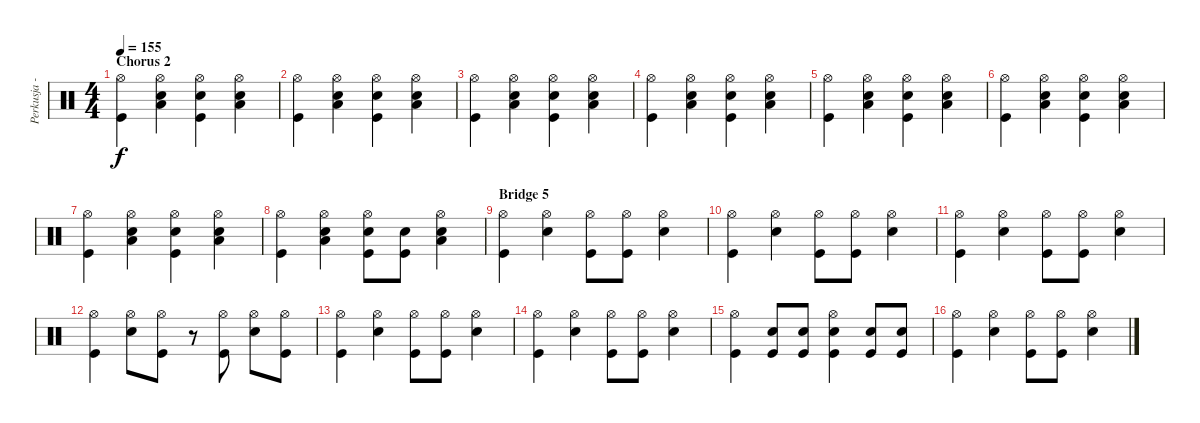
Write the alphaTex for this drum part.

\track ("Perkusja - Mielony" "Perkusja -") {instrument percussion}
\staff {score}
\articulation defaults
\ts (4 4)
\section ("" "Chorus 2")
\tempo 155
\clef neutral
\ks c
("Hi-Hat (open)" "Kick (hit)").4{dy f} ("Snare (hit) 2" "Hi-Hat (open)" "Low Tom (hit)").4 ("Snare (hit) 2" "Hi-Hat (open)" "Kick (hit)").4 ("Snare (hit) 2" "Hi-Hat (open)" "Low Tom (hit)").4 |
("Hi-Hat (open)" "Kick (hit)").4 ("Snare (hit) 2" "Hi-Hat (open)" "Low Tom (hit)").4 ("Snare (hit) 2" "Hi-Hat (open)" "Kick (hit)").4 ("Snare (hit) 2" "Hi-Hat (open)" "Low Tom (hit)").4 |
("Hi-Hat (open)" "Kick (hit)").4 ("Snare (hit) 2" "Hi-Hat (open)" "Low Tom (hit)").4 ("Snare (hit) 2" "Hi-Hat (open)" "Kick (hit)").4 ("Snare (hit) 2" "Hi-Hat (open)" "Low Tom (hit)").4 |
("Hi-Hat (open)" "Kick (hit)").4 ("Snare (hit) 2" "Hi-Hat (open)" "Low Tom (hit)").4 ("Snare (hit) 2" "Hi-Hat (open)" "Kick (hit)").4 ("Snare (hit) 2" "Hi-Hat (open)" "Low Tom (hit)").4 |
("Hi-Hat (open)" "Kick (hit)").4 ("Snare (hit) 2" "Hi-Hat (open)" "Low Tom (hit)").4 ("Snare (hit) 2" "Hi-Hat (open)" "Kick (hit)").4 ("Snare (hit) 2" "Hi-Hat (open)" "Low Tom (hit)").4 |
("Hi-Hat (open)" "Kick (hit)").4 ("Snare (hit) 2" "Hi-Hat (open)" "Low Tom (hit)").4 ("Snare (hit) 2" "Hi-Hat (open)" "Kick (hit)").4 ("Snare (hit) 2" "Hi-Hat (open)" "Low Tom (hit)").4 |
("Hi-Hat (open)" "Kick (hit)").4 ("Snare (hit) 2" "Hi-Hat (open)" "Low Tom (hit)").4 ("Snare (hit) 2" "Hi-Hat (open)" "Kick (hit)").4 ("Snare (hit) 2" "Hi-Hat (open)" "Low Tom (hit)").4 |
("Hi-Hat (open)" "Kick (hit)").4 ("Snare (hit) 2" "Hi-Hat (open)" "Low Tom (hit)").4 ("Snare (hit) 2" "Hi-Hat (open)" "Kick (hit)").8 ("Snare (hit) 2" "Kick (hit)").8 ("Snare (hit) 2" "Hi-Hat (open)" "Low Tom (hit)").4 |
\section ("" "Bridge 5")
("Hi-Hat (open)" "Kick (hit)").4 ("Snare (hit) 2" "Hi-Hat (open)").4 ("Hi-Hat (open)" "Kick (hit)").8 ("Hi-Hat (open)" "Kick (hit)").8 ("Snare (hit) 2" "Hi-Hat (open)").4 |
("Hi-Hat (open)" "Kick (hit)").4 ("Snare (hit) 2" "Hi-Hat (open)").4 ("Hi-Hat (open)" "Kick (hit)").8 ("Hi-Hat (open)" "Kick (hit)").8 ("Snare (hit) 2" "Hi-Hat (open)").4 |
("Hi-Hat (open)" "Kick (hit)").4 ("Snare (hit) 2" "Hi-Hat (open)").4 ("Hi-Hat (open)" "Kick (hit)").8 ("Hi-Hat (open)" "Kick (hit)").8 ("Snare (hit) 2" "Hi-Hat (open)").4 |
("Hi-Hat (open)" "Kick (hit)").4 ("Snare (hit) 2" "Hi-Hat (open)").8 ("Hi-Hat (open)" "Kick (hit)").8 r.8 ("Hi-Hat (open)" "Kick (hit)").8 ("Snare (hit) 2" "Hi-Hat (open)").8 ("Hi-Hat (open)" "Kick (hit)").8 |
("Hi-Hat (open)" "Kick (hit)").4 ("Snare (hit) 2" "Hi-Hat (open)").4 ("Hi-Hat (open)" "Kick (hit)").8 ("Hi-Hat (open)" "Kick (hit)").8 ("Snare (hit) 2" "Hi-Hat (open)").4 |
("Hi-Hat (open)" "Kick (hit)").4 ("Snare (hit) 2" "Hi-Hat (open)").4 ("Hi-Hat (open)" "Kick (hit)").8 ("Hi-Hat (open)" "Kick (hit)").8 ("Snare (hit) 2" "Hi-Hat (open)").4 |
("Hi-Hat (open)" "Kick (hit)").4 ("Snare (hit) 2" "Kick (hit)").8 ("Snare (hit) 2" "Kick (hit)").8 ("Snare (hit) 2" "Hi-Hat (open)" "Kick (hit)").4 ("Snare (hit) 2" "Kick (hit)").8 ("Snare (hit) 2" "Kick (hit)").8 |
("Hi-Hat (open)" "Kick (hit)").4 ("Snare (hit) 2" "Hi-Hat (open)").4 ("Hi-Hat (open)" "Kick (hit)").8 ("Hi-Hat (open)" "Kick (hit)").8 ("Snare (hit) 2" "Hi-Hat (open)").4
